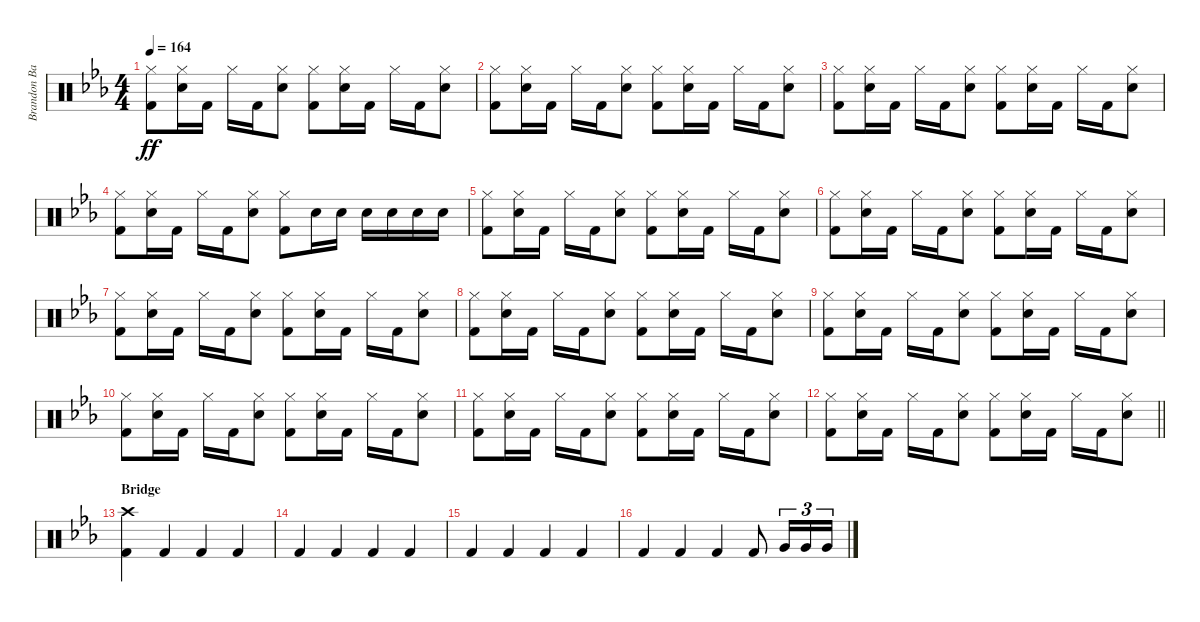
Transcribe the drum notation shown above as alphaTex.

\track ("Brandon Barnes - Drums" "Brandon Ba") {instrument percussion}
\staff {score}
\articulation defaults
\ts (4 4)
\tempo 164
\clef neutral
\ks eb
("Kick (hit) 2" "Hi-Hat (closed)").8{dy ff} ("Electric Snare (hit)" "Hi-Hat (closed)").16 "Kick (hit) 2".16 "Hi-Hat (closed)".16 "Kick (hit) 2".16 ("Electric Snare (hit)" "Hi-Hat (closed)").8 ("Kick (hit) 2" "Hi-Hat (closed)").8 ("Electric Snare (hit)" "Hi-Hat (closed)").16 "Kick (hit) 2".16 "Hi-Hat (closed)".16 "Kick (hit) 2".16 ("Electric Snare (hit)" "Hi-Hat (closed)").8 |
("Kick (hit) 2" "Hi-Hat (closed)").8 ("Electric Snare (hit)" "Hi-Hat (closed)").16 "Kick (hit) 2".16 "Hi-Hat (closed)".16 "Kick (hit) 2".16 ("Electric Snare (hit)" "Hi-Hat (closed)").8 ("Kick (hit) 2" "Hi-Hat (closed)").8 ("Electric Snare (hit)" "Hi-Hat (closed)").16 "Kick (hit) 2".16 "Hi-Hat (closed)".16 "Kick (hit) 2".16 ("Electric Snare (hit)" "Hi-Hat (closed)").8 |
("Kick (hit) 2" "Hi-Hat (closed)").8 ("Electric Snare (hit)" "Hi-Hat (closed)").16 "Kick (hit) 2".16 "Hi-Hat (closed)".16 "Kick (hit) 2".16 ("Electric Snare (hit)" "Hi-Hat (closed)").8 ("Kick (hit) 2" "Hi-Hat (closed)").8 ("Electric Snare (hit)" "Hi-Hat (closed)").16 "Kick (hit) 2".16 "Hi-Hat (closed)".16 "Kick (hit) 2".16 ("Electric Snare (hit)" "Hi-Hat (closed)").8 |
("Kick (hit) 2" "Hi-Hat (closed)").8 ("Electric Snare (hit)" "Hi-Hat (closed)").16 "Kick (hit) 2".16 "Hi-Hat (closed)".16 "Kick (hit) 2".16 ("Electric Snare (hit)" "Hi-Hat (closed)").8 ("Kick (hit) 2" "Hi-Hat (closed)").8 "Electric Snare (hit)".16 "Snare (hit) 2".16 "Snare (hit) 2".16 "Snare (hit) 2".16 "Snare (hit) 2".16 "Snare (hit) 2".16 |
("Kick (hit) 2" "Hi-Hat (closed)").8 ("Electric Snare (hit)" "Hi-Hat (closed)").16 "Kick (hit) 2".16 "Hi-Hat (closed)".16 "Kick (hit) 2".16 ("Electric Snare (hit)" "Hi-Hat (closed)").8 ("Kick (hit) 2" "Hi-Hat (closed)").8 ("Electric Snare (hit)" "Hi-Hat (closed)").16 "Kick (hit) 2".16 "Hi-Hat (closed)".16 "Kick (hit) 2".16 ("Electric Snare (hit)" "Hi-Hat (closed)").8 |
("Kick (hit) 2" "Hi-Hat (closed)").8 ("Electric Snare (hit)" "Hi-Hat (closed)").16 "Kick (hit) 2".16 "Hi-Hat (closed)".16 "Kick (hit) 2".16 ("Electric Snare (hit)" "Hi-Hat (closed)").8 ("Kick (hit) 2" "Hi-Hat (closed)").8 ("Electric Snare (hit)" "Hi-Hat (closed)").16 "Kick (hit) 2".16 "Hi-Hat (closed)".16 "Kick (hit) 2".16 ("Electric Snare (hit)" "Hi-Hat (closed)").8 |
("Kick (hit) 2" "Hi-Hat (closed)").8 ("Electric Snare (hit)" "Hi-Hat (closed)").16 "Kick (hit) 2".16 "Hi-Hat (closed)".16 "Kick (hit) 2".16 ("Electric Snare (hit)" "Hi-Hat (closed)").8 ("Kick (hit) 2" "Hi-Hat (closed)").8 ("Electric Snare (hit)" "Hi-Hat (closed)").16 "Kick (hit) 2".16 "Hi-Hat (closed)".16 "Kick (hit) 2".16 ("Electric Snare (hit)" "Hi-Hat (closed)").8 |
("Kick (hit) 2" "Hi-Hat (closed)").8 ("Electric Snare (hit)" "Hi-Hat (closed)").16 "Kick (hit) 2".16 "Hi-Hat (closed)".16 "Kick (hit) 2".16 ("Electric Snare (hit)" "Hi-Hat (closed)").8 ("Kick (hit) 2" "Hi-Hat (closed)").8 ("Electric Snare (hit)" "Hi-Hat (closed)").16 "Kick (hit) 2".16 "Hi-Hat (closed)".16 "Kick (hit) 2".16 ("Electric Snare (hit)" "Hi-Hat (closed)").8 |
("Kick (hit) 2" "Hi-Hat (closed)").8 ("Electric Snare (hit)" "Hi-Hat (closed)").16 "Kick (hit) 2".16 "Hi-Hat (closed)".16 "Kick (hit) 2".16 ("Electric Snare (hit)" "Hi-Hat (closed)").8 ("Kick (hit) 2" "Hi-Hat (closed)").8 ("Electric Snare (hit)" "Hi-Hat (closed)").16 "Kick (hit) 2".16 "Hi-Hat (closed)".16 "Kick (hit) 2".16 ("Electric Snare (hit)" "Hi-Hat (closed)").8 |
("Kick (hit) 2" "Hi-Hat (closed)").8 ("Electric Snare (hit)" "Hi-Hat (closed)").16 "Kick (hit) 2".16 "Hi-Hat (closed)".16 "Kick (hit) 2".16 ("Electric Snare (hit)" "Hi-Hat (closed)").8 ("Kick (hit) 2" "Hi-Hat (closed)").8 ("Electric Snare (hit)" "Hi-Hat (closed)").16 "Kick (hit) 2".16 "Hi-Hat (closed)".16 "Kick (hit) 2".16 ("Electric Snare (hit)" "Hi-Hat (closed)").8 |
("Kick (hit) 2" "Hi-Hat (closed)").8 ("Electric Snare (hit)" "Hi-Hat (closed)").16 "Kick (hit) 2".16 "Hi-Hat (closed)".16 "Kick (hit) 2".16 ("Electric Snare (hit)" "Hi-Hat (closed)").8 ("Kick (hit) 2" "Hi-Hat (closed)").8 ("Electric Snare (hit)" "Hi-Hat (closed)").16 "Kick (hit) 2".16 "Hi-Hat (closed)".16 "Kick (hit) 2".16 ("Electric Snare (hit)" "Hi-Hat (closed)").8 |
\barLineRight lightlight
("Kick (hit) 2" "Hi-Hat (closed)").8 ("Electric Snare (hit)" "Hi-Hat (closed)").16 "Kick (hit) 2".16 "Hi-Hat (closed)".16 "Kick (hit) 2".16 ("Electric Snare (hit)" "Hi-Hat (closed)").8 ("Kick (hit) 2" "Hi-Hat (closed)").8 ("Electric Snare (hit)" "Hi-Hat (closed)").16 "Kick (hit) 2".16 "Hi-Hat (closed)".16 "Kick (hit) 2".16 ("Electric Snare (hit)" "Hi-Hat (closed)").8 |
\section ("" "Bridge")
("Kick (hit) 2" "Crash high (hit)").4 "Kick (hit) 2".4 "Kick (hit) 2".4 "Kick (hit) 2".4 |
"Kick (hit) 2".4 "Kick (hit) 2".4 "Kick (hit) 2".4 "Kick (hit) 2".4 |
"Kick (hit) 2".4 "Kick (hit) 2".4 "Kick (hit) 2".4 "Kick (hit) 2".4 |
"Kick (hit) 2".4 "Kick (hit) 2".4 "Kick (hit) 2".4 "Kick (hit) 2".8 "Very Low Tom (hit)".16{tu (3 2)} "Very Low Tom (hit)".16{tu (3 2)} "Very Low Tom (hit)".16{tu (3 2)}
